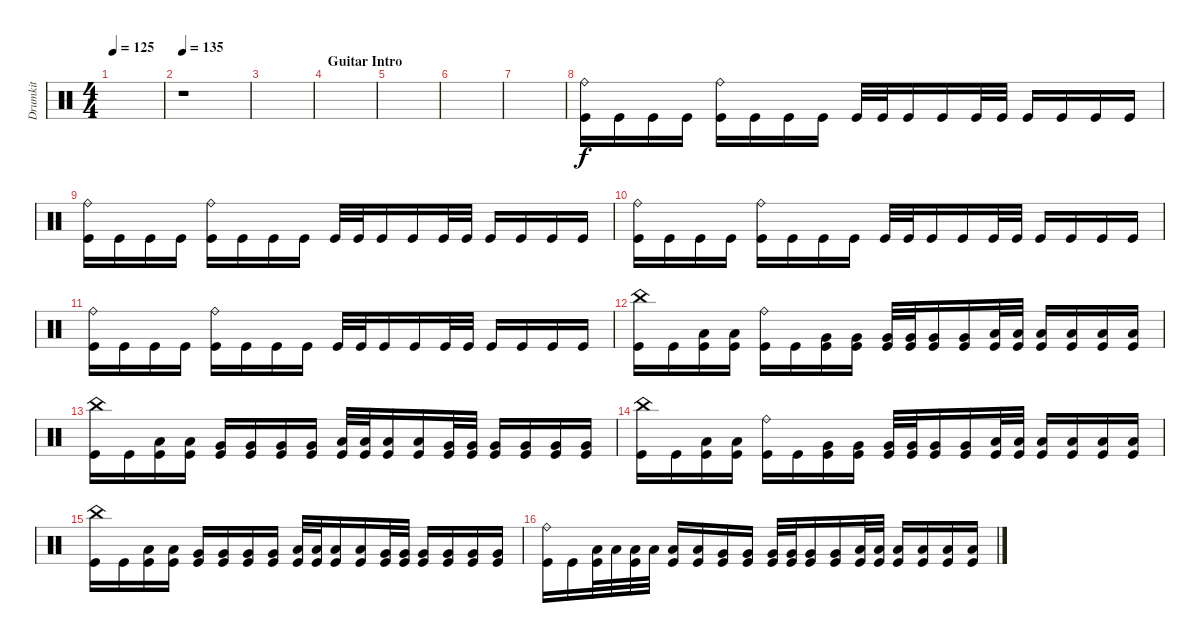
\track ("Drumkit" "Drumkit") {instrument percussion}
\staff {score}
\articulation defaults
\ts (4 4)
\tempo 125
\clef neutral
\ks c
|
\tempo 135
r.1 |
|
\section ("" "Guitar Intro")
|
|
|
|
("Kick (hit)" "Ride (bell)").16 "Kick (hit)".16 "Kick (hit)".16 "Kick (hit)".16 ("Kick (hit)" "Ride (bell)").16 "Kick (hit)".16 "Kick (hit)".16 "Kick (hit)".16 "Kick (hit)".32 "Kick (hit)".32 "Kick (hit)".16 "Kick (hit)".16 "Kick (hit)".32 "Kick (hit)".32 "Kick (hit)".16 "Kick (hit)".16 "Kick (hit)".16 "Kick (hit)".16 |
("Kick (hit)" "Ride (bell)").16 "Kick (hit)".16 "Kick (hit)".16 "Kick (hit)".16 ("Kick (hit)" "Ride (bell)").16 "Kick (hit)".16 "Kick (hit)".16 "Kick (hit)".16 "Kick (hit)".32 "Kick (hit)".32 "Kick (hit)".16 "Kick (hit)".16 "Kick (hit)".32 "Kick (hit)".32 "Kick (hit)".16 "Kick (hit)".16 "Kick (hit)".16 "Kick (hit)".16 |
("Kick (hit)" "Ride (bell)").16 "Kick (hit)".16 "Kick (hit)".16 "Kick (hit)".16 ("Kick (hit)" "Ride (bell)").16 "Kick (hit)".16 "Kick (hit)".16 "Kick (hit)".16 "Kick (hit)".32 "Kick (hit)".32 "Kick (hit)".16 "Kick (hit)".16 "Kick (hit)".32 "Kick (hit)".32 "Kick (hit)".16 "Kick (hit)".16 "Kick (hit)".16 "Kick (hit)".16 |
("Kick (hit)" "Ride (bell)").16 "Kick (hit)".16 "Kick (hit)".16 "Kick (hit)".16 ("Kick (hit)" "Ride (bell)").16 "Kick (hit)".16 "Kick (hit)".16 "Kick (hit)".16 "Kick (hit)".32 "Kick (hit)".32 "Kick (hit)".16 "Kick (hit)".16 "Kick (hit)".32 "Kick (hit)".32 "Kick (hit)".16 "Kick (hit)".16 "Kick (hit)".16 "Kick (hit)".16 |
("Kick (hit)" "China (hit)").16 "Kick (hit)".16 ("Kick (hit)" "Low Tom (hit)").16 ("Kick (hit)" "Low Tom (hit)").16 ("Kick (hit)" "Ride (bell)").16 "Kick (hit)".16 ("Kick (hit)" "Very Low Tom (hit)").16 ("Kick (hit)" "Very Low Tom (hit)").16 ("Kick (hit)" "Very Low Tom (hit)").32 ("Kick (hit)" "Very Low Tom (hit)").32 ("Kick (hit)" "Very Low Tom (hit)").16 ("Kick (hit)" "Very Low Tom (hit)").16 ("Kick (hit)" "Low Floor Tom (hit)").32 ("Kick (hit)" "Low Floor Tom (hit)").32 ("Kick (hit)" "Low Floor Tom (hit)").16 ("Kick (hit)" "Low Floor Tom (hit)").16 ("Kick (hit)" "Low Floor Tom (hit)").16 ("Kick (hit)" "Low Floor Tom (hit)").16 |
("Kick (hit)" "China (hit)").16 "Kick (hit)".16 ("Kick (hit)" "Low Floor Tom (hit)").16 ("Kick (hit)" "Low Floor Tom (hit)").16 ("Kick (hit)" "Very Low Tom (hit)").16 ("Kick (hit)" "Very Low Tom (hit)").16 ("Kick (hit)" "Very Low Tom (hit)").16 ("Kick (hit)" "Very Low Tom (hit)").16 ("Kick (hit)" "Low Tom (hit)").32 ("Kick (hit)" "Low Tom (hit)").32 ("Kick (hit)" "Low Tom (hit)").16 ("Kick (hit)" "Low Tom (hit)").16 ("Kick (hit)" "Very Low Tom (hit)").32 ("Kick (hit)" "Very Low Tom (hit)").32 ("Kick (hit)" "Very Low Tom (hit)").16 ("Kick (hit)" "Very Low Tom (hit)").16 ("Kick (hit)" "Very Low Tom (hit)").16 ("Kick (hit)" "Very Low Tom (hit)").16 |
("Kick (hit)" "China (hit)").16 "Kick (hit)".16 ("Kick (hit)" "Low Tom (hit)").16 ("Kick (hit)" "Low Tom (hit)").16 ("Kick (hit)" "Ride (bell)").16 "Kick (hit)".16 ("Kick (hit)" "Very Low Tom (hit)").16 ("Kick (hit)" "Very Low Tom (hit)").16 ("Kick (hit)" "Very Low Tom (hit)").32 ("Kick (hit)" "Very Low Tom (hit)").32 ("Kick (hit)" "Very Low Tom (hit)").16 ("Kick (hit)" "Very Low Tom (hit)").16 ("Kick (hit)" "Low Floor Tom (hit)").32 ("Kick (hit)" "Low Floor Tom (hit)").32 ("Kick (hit)" "Low Floor Tom (hit)").16 ("Kick (hit)" "Low Floor Tom (hit)").16 ("Kick (hit)" "Low Floor Tom (hit)").16 ("Kick (hit)" "Low Floor Tom (hit)").16 |
("Kick (hit)" "China (hit)").16 "Kick (hit)".16 ("Kick (hit)" "Low Floor Tom (hit)").16 ("Kick (hit)" "Low Floor Tom (hit)").16 ("Kick (hit)" "Very Low Tom (hit)").16 ("Kick (hit)" "Very Low Tom (hit)").16 ("Kick (hit)" "Very Low Tom (hit)").16 ("Kick (hit)" "Very Low Tom (hit)").16 ("Kick (hit)" "Low Tom (hit)").32 ("Kick (hit)" "Low Tom (hit)").32 ("Kick (hit)" "Low Tom (hit)").16 ("Kick (hit)" "Low Tom (hit)").16 ("Kick (hit)" "Very Low Tom (hit)").32 ("Kick (hit)" "Very Low Tom (hit)").32 ("Kick (hit)" "Very Low Tom (hit)").16 ("Kick (hit)" "Very Low Tom (hit)").16 ("Kick (hit)" "Very Low Tom (hit)").16 ("Kick (hit)" "Very Low Tom (hit)").16 |
("Ride (bell)" "Kick (hit)").16 "Kick (hit)".16 ("Kick (hit)" "Low Tom (hit)").32 "Low Tom (hit)".32 ("Kick (hit)" "Low Tom (hit)").32 "Low Tom (hit)".32 ("Kick (hit)" "Low Tom (hit)").16 ("Kick (hit)" "Low Tom (hit)").16 ("Kick (hit)" "Very Low Tom (hit)").16 ("Kick (hit)" "Very Low Tom (hit)").16 ("Kick (hit)" "Very Low Tom (hit)").32 ("Kick (hit)" "Very Low Tom (hit)").32 ("Kick (hit)" "Very Low Tom (hit)").16 ("Kick (hit)" "Very Low Tom (hit)").16 ("Kick (hit)" "Low Floor Tom (hit)").32 ("Kick (hit)" "Low Floor Tom (hit)").32 ("Kick (hit)" "Low Floor Tom (hit)").16 ("Kick (hit)" "Low Floor Tom (hit)").16 ("Kick (hit)" "Low Floor Tom (hit)").16 ("Kick (hit)" "Low Floor Tom (hit)").16
